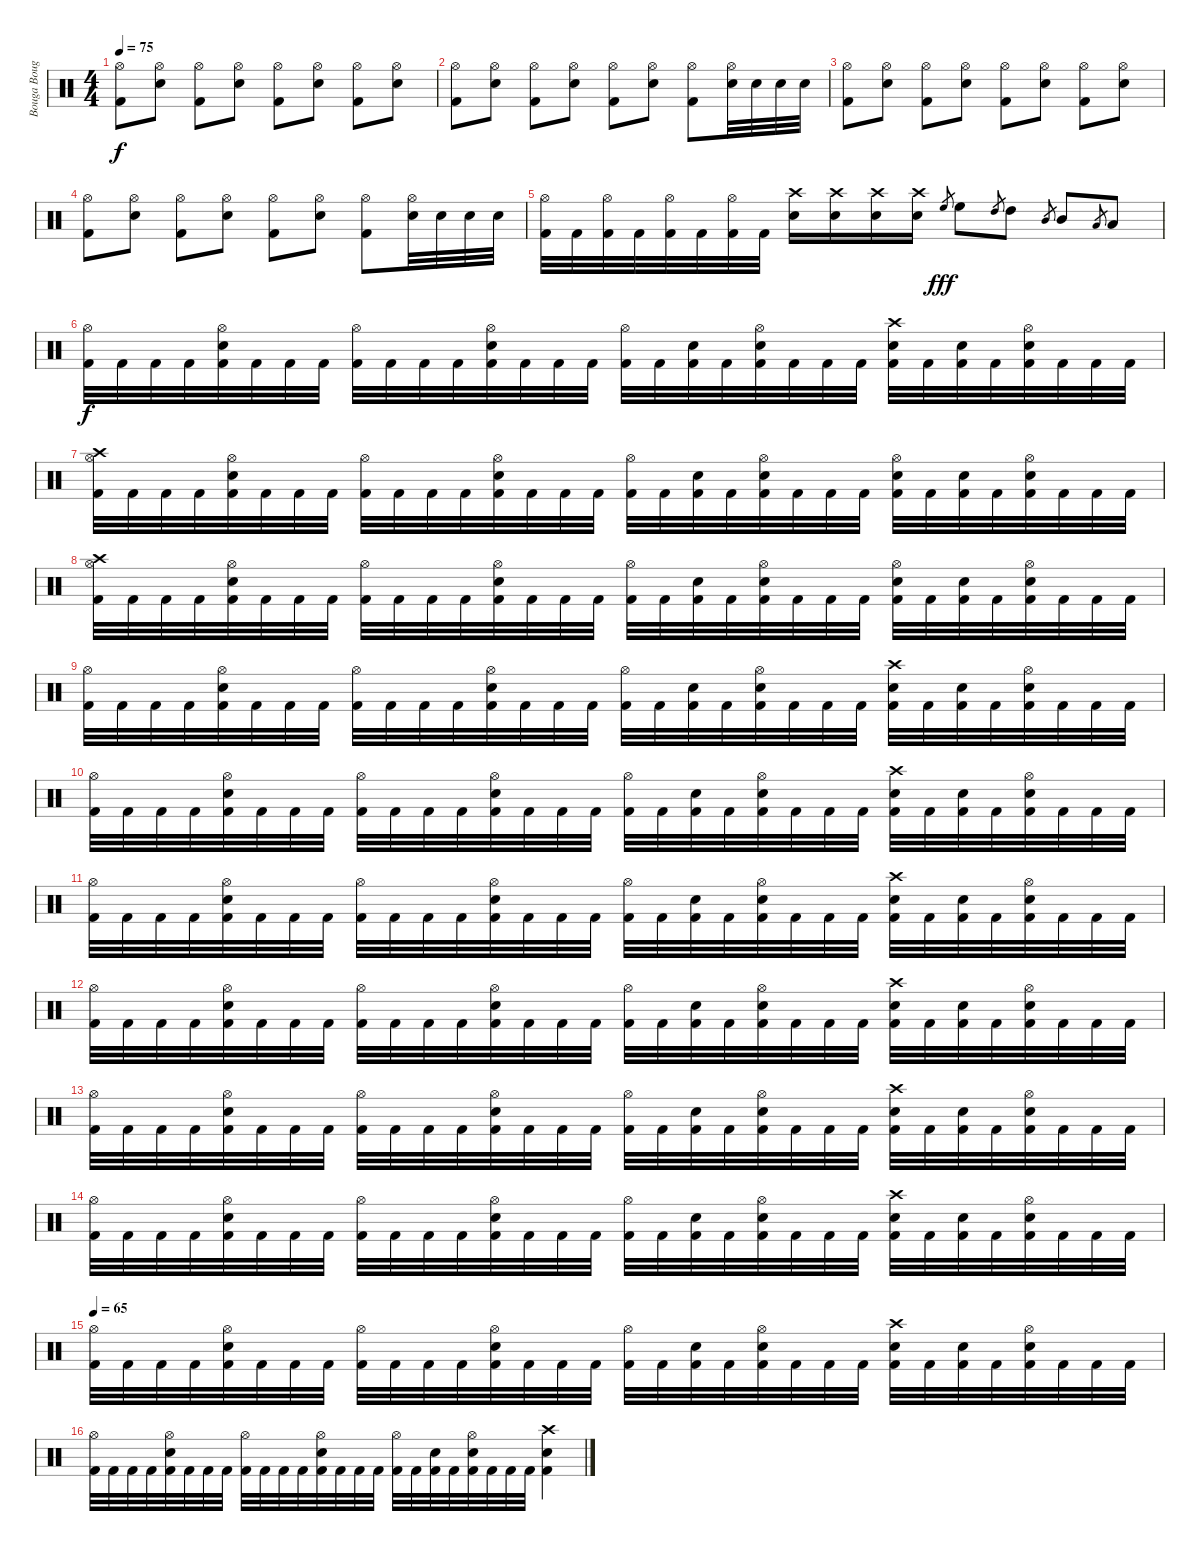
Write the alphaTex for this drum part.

\track ("Bouga Bouga" "Bouga Boug") {instrument percussion}
\staff {score}
\articulation defaults
\ts (4 4)
\tempo 75
\clef neutral
\ks c
("Hi-Hat (open)" "Kick (hit) 2").8{dy f volume 16} ("Hi-Hat (open)" "Snare (hit) 2").8 ("Hi-Hat (open)" "Kick (hit) 2").8 ("Hi-Hat (open)" "Snare (hit) 2").8 ("Hi-Hat (open)" "Kick (hit) 2").8 ("Hi-Hat (open)" "Snare (hit) 2").8 ("Hi-Hat (open)" "Kick (hit) 2").8 ("Hi-Hat (open)" "Snare (hit) 2").8 |
("Hi-Hat (open)" "Kick (hit) 2").8{volume 16} ("Hi-Hat (open)" "Snare (hit) 2").8 ("Hi-Hat (open)" "Kick (hit) 2").8 ("Hi-Hat (open)" "Snare (hit) 2").8 ("Hi-Hat (open)" "Kick (hit) 2").8 ("Hi-Hat (open)" "Snare (hit) 2").8 ("Hi-Hat (open)" "Kick (hit) 2").8 ("Hi-Hat (open)" "Snare (hit) 2").32 "Snare (hit) 2".32 "Snare (hit) 2".32 "Snare (hit) 2".32 |
("Hi-Hat (open)" "Kick (hit) 2").8{volume 16} ("Hi-Hat (open)" "Snare (hit) 2").8 ("Hi-Hat (open)" "Kick (hit) 2").8 ("Hi-Hat (open)" "Snare (hit) 2").8 ("Hi-Hat (open)" "Kick (hit) 2").8 ("Hi-Hat (open)" "Snare (hit) 2").8 ("Hi-Hat (open)" "Kick (hit) 2").8 ("Hi-Hat (open)" "Snare (hit) 2").8 |
("Hi-Hat (open)" "Kick (hit) 2").8{volume 16} ("Hi-Hat (open)" "Snare (hit) 2").8 ("Hi-Hat (open)" "Kick (hit) 2").8 ("Hi-Hat (open)" "Snare (hit) 2").8 ("Hi-Hat (open)" "Kick (hit) 2").8 ("Hi-Hat (open)" "Snare (hit) 2").8 ("Hi-Hat (open)" "Kick (hit) 2").8 ("Hi-Hat (open)" "Snare (hit) 2").32 "Snare (hit) 2".32 "Snare (hit) 2".32 "Snare (hit) 2".32 |
("Hi-Hat (open)" "Kick (hit) 2").32{volume 16} "Kick (hit) 2".32 ("Hi-Hat (open)" "Kick (hit) 2").32 "Kick (hit) 2".32 ("Hi-Hat (open)" "Kick (hit) 2").32 "Kick (hit) 2".32 ("Hi-Hat (open)" "Kick (hit) 2").32 "Kick (hit) 2".32 ("Crash high (hit)" "Snare (hit) 2").16 ("Crash high (hit)" "Snare (hit) 2").16 ("Crash high (hit)" "Snare (hit) 2").16 ("Crash high (hit)" "Snare (hit) 2").16 "High Floor Tom (hit)".8{gr dy fff} "High Floor Tom (hit)".8 "High Tom (hit)".8{gr} "High Tom (hit)".8 "Mid Tom (hit)".8{gr} "Mid Tom (hit)".8 "Low Tom (hit)".8{gr} "Low Tom (hit)".8 |
("Hi-Hat (open)" "Kick (hit) 2").32{dy f volume 16} "Kick (hit) 2".32 "Kick (hit) 2".32 "Kick (hit) 2".32 ("Hi-Hat (open)" "Snare (hit) 2" "Kick (hit) 2").32 "Kick (hit) 2".32 "Kick (hit) 2".32 "Kick (hit) 2".32 ("Hi-Hat (open)" "Kick (hit) 2").32 "Kick (hit) 2".32 "Kick (hit) 2".32 "Kick (hit) 2".32 ("Hi-Hat (open)" "Snare (hit) 2" "Kick (hit) 2").32 "Kick (hit) 2".32 "Kick (hit) 2".32 "Kick (hit) 2".32 ("Hi-Hat (open)" "Kick (hit) 2").32 "Kick (hit) 2".32 ("Snare (hit) 2" "Kick (hit) 2").32 "Kick (hit) 2".32 ("Hi-Hat (open)" "Snare (hit) 2" "Kick (hit) 2").32 "Kick (hit) 2".32 "Kick (hit) 2".32 "Kick (hit) 2".32 ("Crash high (hit)" "Snare (hit) 2" "Kick (hit) 2").32 "Kick (hit) 2".32 ("Snare (hit) 2" "Kick (hit) 2").32 "Kick (hit) 2".32 ("Hi-Hat (open)" "Snare (hit) 2" "Kick (hit) 2").32 "Kick (hit) 2".32 "Kick (hit) 2".32 "Kick (hit) 2".32 |
("Crash high (hit)" "Hi-Hat (open)" "Kick (hit) 2").32{volume 16} "Kick (hit) 2".32 "Kick (hit) 2".32 "Kick (hit) 2".32 ("Hi-Hat (open)" "Snare (hit) 2" "Kick (hit) 2").32 "Kick (hit) 2".32 "Kick (hit) 2".32 "Kick (hit) 2".32 ("Hi-Hat (open)" "Kick (hit) 2").32 "Kick (hit) 2".32 "Kick (hit) 2".32 "Kick (hit) 2".32 ("Hi-Hat (open)" "Snare (hit) 2" "Kick (hit) 2").32 "Kick (hit) 2".32 "Kick (hit) 2".32 "Kick (hit) 2".32 ("Hi-Hat (open)" "Kick (hit) 2").32 "Kick (hit) 2".32 ("Snare (hit) 2" "Kick (hit) 2").32 "Kick (hit) 2".32 ("Hi-Hat (open)" "Snare (hit) 2" "Kick (hit) 2").32 "Kick (hit) 2".32 "Kick (hit) 2".32 "Kick (hit) 2".32 ("Hi-Hat (open)" "Snare (hit) 2" "Kick (hit) 2").32 "Kick (hit) 2".32 ("Snare (hit) 2" "Kick (hit) 2").32 "Kick (hit) 2".32 ("Hi-Hat (open)" "Snare (hit) 2" "Kick (hit) 2").32 "Kick (hit) 2".32 "Kick (hit) 2".32 "Kick (hit) 2".32 |
("Crash high (hit)" "Hi-Hat (open)" "Kick (hit) 2").32{volume 16} "Kick (hit) 2".32 "Kick (hit) 2".32 "Kick (hit) 2".32 ("Hi-Hat (open)" "Snare (hit) 2" "Kick (hit) 2").32 "Kick (hit) 2".32 "Kick (hit) 2".32 "Kick (hit) 2".32 ("Hi-Hat (open)" "Kick (hit) 2").32 "Kick (hit) 2".32 "Kick (hit) 2".32 "Kick (hit) 2".32 ("Hi-Hat (open)" "Snare (hit) 2" "Kick (hit) 2").32 "Kick (hit) 2".32 "Kick (hit) 2".32 "Kick (hit) 2".32 ("Hi-Hat (open)" "Kick (hit) 2").32 "Kick (hit) 2".32 ("Snare (hit) 2" "Kick (hit) 2").32 "Kick (hit) 2".32 ("Hi-Hat (open)" "Snare (hit) 2" "Kick (hit) 2").32 "Kick (hit) 2".32 "Kick (hit) 2".32 "Kick (hit) 2".32 ("Hi-Hat (open)" "Snare (hit) 2" "Kick (hit) 2").32 "Kick (hit) 2".32 ("Snare (hit) 2" "Kick (hit) 2").32 "Kick (hit) 2".32 ("Hi-Hat (open)" "Snare (hit) 2" "Kick (hit) 2").32 "Kick (hit) 2".32 "Kick (hit) 2".32 "Kick (hit) 2".32 |
("Hi-Hat (open)" "Kick (hit) 2").32{volume 16} "Kick (hit) 2".32 "Kick (hit) 2".32 "Kick (hit) 2".32 ("Hi-Hat (open)" "Snare (hit) 2" "Kick (hit) 2").32 "Kick (hit) 2".32 "Kick (hit) 2".32 "Kick (hit) 2".32 ("Hi-Hat (open)" "Kick (hit) 2").32 "Kick (hit) 2".32 "Kick (hit) 2".32 "Kick (hit) 2".32 ("Hi-Hat (open)" "Snare (hit) 2" "Kick (hit) 2").32 "Kick (hit) 2".32 "Kick (hit) 2".32 "Kick (hit) 2".32 ("Hi-Hat (open)" "Kick (hit) 2").32 "Kick (hit) 2".32 ("Snare (hit) 2" "Kick (hit) 2").32 "Kick (hit) 2".32 ("Hi-Hat (open)" "Snare (hit) 2" "Kick (hit) 2").32 "Kick (hit) 2".32 "Kick (hit) 2".32 "Kick (hit) 2".32 ("Crash high (hit)" "Snare (hit) 2" "Kick (hit) 2").32 "Kick (hit) 2".32 ("Snare (hit) 2" "Kick (hit) 2").32 "Kick (hit) 2".32 ("Hi-Hat (open)" "Snare (hit) 2" "Kick (hit) 2").32 "Kick (hit) 2".32 "Kick (hit) 2".32 "Kick (hit) 2".32 |
("Hi-Hat (open)" "Kick (hit) 2").32{volume 16} "Kick (hit) 2".32 "Kick (hit) 2".32 "Kick (hit) 2".32 ("Hi-Hat (open)" "Snare (hit) 2" "Kick (hit) 2").32 "Kick (hit) 2".32 "Kick (hit) 2".32 "Kick (hit) 2".32 ("Hi-Hat (open)" "Kick (hit) 2").32 "Kick (hit) 2".32 "Kick (hit) 2".32 "Kick (hit) 2".32 ("Hi-Hat (open)" "Snare (hit) 2" "Kick (hit) 2").32 "Kick (hit) 2".32 "Kick (hit) 2".32 "Kick (hit) 2".32 ("Hi-Hat (open)" "Kick (hit) 2").32 "Kick (hit) 2".32 ("Snare (hit) 2" "Kick (hit) 2").32 "Kick (hit) 2".32 ("Hi-Hat (open)" "Snare (hit) 2" "Kick (hit) 2").32 "Kick (hit) 2".32 "Kick (hit) 2".32 "Kick (hit) 2".32 ("Crash high (hit)" "Snare (hit) 2" "Kick (hit) 2").32 "Kick (hit) 2".32 ("Snare (hit) 2" "Kick (hit) 2").32 "Kick (hit) 2".32 ("Hi-Hat (open)" "Snare (hit) 2" "Kick (hit) 2").32 "Kick (hit) 2".32 "Kick (hit) 2".32 "Kick (hit) 2".32 |
("Hi-Hat (open)" "Kick (hit) 2").32{volume 16} "Kick (hit) 2".32 "Kick (hit) 2".32 "Kick (hit) 2".32 ("Hi-Hat (open)" "Snare (hit) 2" "Kick (hit) 2").32 "Kick (hit) 2".32 "Kick (hit) 2".32 "Kick (hit) 2".32 ("Hi-Hat (open)" "Kick (hit) 2").32 "Kick (hit) 2".32 "Kick (hit) 2".32 "Kick (hit) 2".32 ("Hi-Hat (open)" "Snare (hit) 2" "Kick (hit) 2").32 "Kick (hit) 2".32 "Kick (hit) 2".32 "Kick (hit) 2".32 ("Hi-Hat (open)" "Kick (hit) 2").32 "Kick (hit) 2".32 ("Snare (hit) 2" "Kick (hit) 2").32 "Kick (hit) 2".32 ("Hi-Hat (open)" "Snare (hit) 2" "Kick (hit) 2").32 "Kick (hit) 2".32 "Kick (hit) 2".32 "Kick (hit) 2".32 ("Crash high (hit)" "Snare (hit) 2" "Kick (hit) 2").32 "Kick (hit) 2".32 ("Snare (hit) 2" "Kick (hit) 2").32 "Kick (hit) 2".32 ("Hi-Hat (open)" "Snare (hit) 2" "Kick (hit) 2").32 "Kick (hit) 2".32 "Kick (hit) 2".32 "Kick (hit) 2".32 |
("Hi-Hat (open)" "Kick (hit) 2").32{volume 16} "Kick (hit) 2".32 "Kick (hit) 2".32 "Kick (hit) 2".32 ("Hi-Hat (open)" "Snare (hit) 2" "Kick (hit) 2").32 "Kick (hit) 2".32 "Kick (hit) 2".32 "Kick (hit) 2".32 ("Hi-Hat (open)" "Kick (hit) 2").32 "Kick (hit) 2".32 "Kick (hit) 2".32 "Kick (hit) 2".32 ("Hi-Hat (open)" "Snare (hit) 2" "Kick (hit) 2").32 "Kick (hit) 2".32 "Kick (hit) 2".32 "Kick (hit) 2".32 ("Hi-Hat (open)" "Kick (hit) 2").32 "Kick (hit) 2".32 ("Snare (hit) 2" "Kick (hit) 2").32 "Kick (hit) 2".32 ("Hi-Hat (open)" "Snare (hit) 2" "Kick (hit) 2").32 "Kick (hit) 2".32 "Kick (hit) 2".32 "Kick (hit) 2".32 ("Crash high (hit)" "Snare (hit) 2" "Kick (hit) 2").32 "Kick (hit) 2".32 ("Snare (hit) 2" "Kick (hit) 2").32 "Kick (hit) 2".32 ("Hi-Hat (open)" "Snare (hit) 2" "Kick (hit) 2").32 "Kick (hit) 2".32 "Kick (hit) 2".32 "Kick (hit) 2".32 |
("Hi-Hat (open)" "Kick (hit) 2").32{volume 16} "Kick (hit) 2".32 "Kick (hit) 2".32 "Kick (hit) 2".32 ("Hi-Hat (open)" "Snare (hit) 2" "Kick (hit) 2").32 "Kick (hit) 2".32 "Kick (hit) 2".32 "Kick (hit) 2".32 ("Hi-Hat (open)" "Kick (hit) 2").32 "Kick (hit) 2".32 "Kick (hit) 2".32 "Kick (hit) 2".32 ("Hi-Hat (open)" "Snare (hit) 2" "Kick (hit) 2").32 "Kick (hit) 2".32 "Kick (hit) 2".32 "Kick (hit) 2".32 ("Hi-Hat (open)" "Kick (hit) 2").32 "Kick (hit) 2".32 ("Snare (hit) 2" "Kick (hit) 2").32 "Kick (hit) 2".32 ("Hi-Hat (open)" "Snare (hit) 2" "Kick (hit) 2").32 "Kick (hit) 2".32 "Kick (hit) 2".32 "Kick (hit) 2".32 ("Crash high (hit)" "Snare (hit) 2" "Kick (hit) 2").32 "Kick (hit) 2".32 ("Snare (hit) 2" "Kick (hit) 2").32 "Kick (hit) 2".32 ("Hi-Hat (open)" "Snare (hit) 2" "Kick (hit) 2").32 "Kick (hit) 2".32 "Kick (hit) 2".32 "Kick (hit) 2".32 |
("Hi-Hat (open)" "Kick (hit) 2").32{volume 16} "Kick (hit) 2".32 "Kick (hit) 2".32 "Kick (hit) 2".32 ("Hi-Hat (open)" "Snare (hit) 2" "Kick (hit) 2").32 "Kick (hit) 2".32 "Kick (hit) 2".32 "Kick (hit) 2".32 ("Hi-Hat (open)" "Kick (hit) 2").32 "Kick (hit) 2".32 "Kick (hit) 2".32 "Kick (hit) 2".32 ("Hi-Hat (open)" "Snare (hit) 2" "Kick (hit) 2").32 "Kick (hit) 2".32 "Kick (hit) 2".32 "Kick (hit) 2".32 ("Hi-Hat (open)" "Kick (hit) 2").32 "Kick (hit) 2".32 ("Snare (hit) 2" "Kick (hit) 2").32 "Kick (hit) 2".32 ("Hi-Hat (open)" "Snare (hit) 2" "Kick (hit) 2").32 "Kick (hit) 2".32 "Kick (hit) 2".32 "Kick (hit) 2".32 ("Crash high (hit)" "Snare (hit) 2" "Kick (hit) 2").32 "Kick (hit) 2".32 ("Snare (hit) 2" "Kick (hit) 2").32 "Kick (hit) 2".32 ("Hi-Hat (open)" "Snare (hit) 2" "Kick (hit) 2").32 "Kick (hit) 2".32 "Kick (hit) 2".32 "Kick (hit) 2".32 |
\tempo 65
("Hi-Hat (open)" "Kick (hit) 2").32{volume 16} "Kick (hit) 2".32 "Kick (hit) 2".32 "Kick (hit) 2".32 ("Hi-Hat (open)" "Snare (hit) 2" "Kick (hit) 2").32 "Kick (hit) 2".32 "Kick (hit) 2".32 "Kick (hit) 2".32 ("Hi-Hat (open)" "Kick (hit) 2").32 "Kick (hit) 2".32 "Kick (hit) 2".32 "Kick (hit) 2".32 ("Hi-Hat (open)" "Snare (hit) 2" "Kick (hit) 2").32 "Kick (hit) 2".32 "Kick (hit) 2".32 "Kick (hit) 2".32 ("Hi-Hat (open)" "Kick (hit) 2").32 "Kick (hit) 2".32 ("Snare (hit) 2" "Kick (hit) 2").32 "Kick (hit) 2".32 ("Hi-Hat (open)" "Snare (hit) 2" "Kick (hit) 2").32 "Kick (hit) 2".32 "Kick (hit) 2".32 "Kick (hit) 2".32 ("Crash high (hit)" "Snare (hit) 2" "Kick (hit) 2").32 "Kick (hit) 2".32 ("Snare (hit) 2" "Kick (hit) 2").32 "Kick (hit) 2".32 ("Hi-Hat (open)" "Snare (hit) 2" "Kick (hit) 2").32 "Kick (hit) 2".32 "Kick (hit) 2".32 "Kick (hit) 2".32 |
("Hi-Hat (open)" "Kick (hit) 2").32{volume 16} "Kick (hit) 2".32 "Kick (hit) 2".32 "Kick (hit) 2".32 ("Hi-Hat (open)" "Snare (hit) 2" "Kick (hit) 2").32 "Kick (hit) 2".32 "Kick (hit) 2".32 "Kick (hit) 2".32 ("Hi-Hat (open)" "Kick (hit) 2").32 "Kick (hit) 2".32 "Kick (hit) 2".32 "Kick (hit) 2".32 ("Hi-Hat (open)" "Snare (hit) 2" "Kick (hit) 2").32 "Kick (hit) 2".32 "Kick (hit) 2".32 "Kick (hit) 2".32 ("Hi-Hat (open)" "Kick (hit) 2").32 "Kick (hit) 2".32 ("Snare (hit) 2" "Kick (hit) 2").32 "Kick (hit) 2".32 ("Hi-Hat (open)" "Snare (hit) 2" "Kick (hit) 2").32 "Kick (hit) 2".32 "Kick (hit) 2".32 "Kick (hit) 2".32 ("Crash high (hit)" "Snare (hit) 2" "Kick (hit) 2").4
